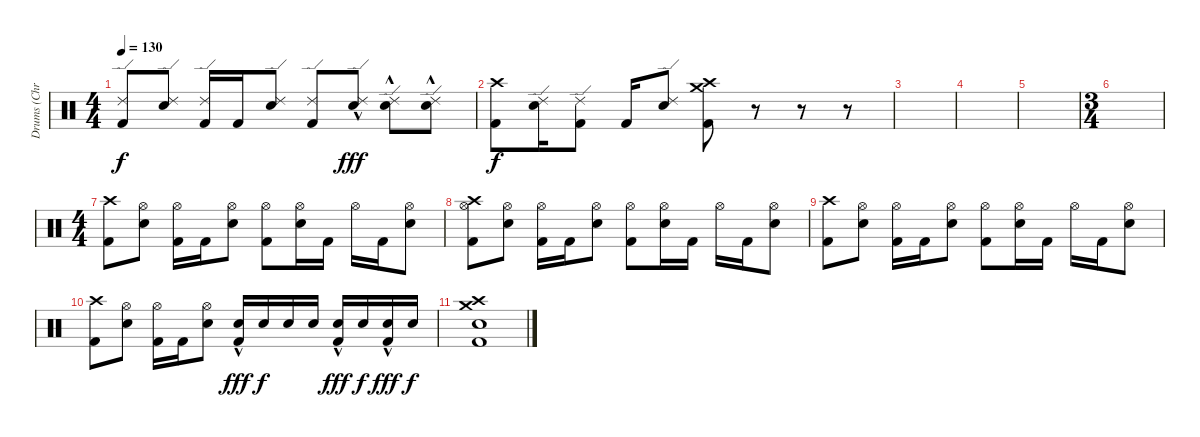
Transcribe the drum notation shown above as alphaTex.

\track ("Drums (Chris Greer)" "Drums (Chr") {instrument percussion}
\staff {score}
\articulation defaults
\ts (4 4)
\tempo 130
\clef neutral
\ks c
("Ride (edge) 2" "Kick (hit) 2").8{dy f} ("Ride (edge) 2" "Electric Snare (hit)").8 ("Ride (edge) 2" "Kick (hit) 2").16 "Kick (hit) 2".16 ("Ride (edge) 2" "Electric Snare (hit)").8 ("Ride (edge) 2" "Kick (hit) 2").8 ("Ride (edge) 2" "Electric Snare (hit)"{hac}).8{dy fff} ("Ride (edge) 2" "Electric Snare (hit)"{hac}).8 ("Ride (edge) 2" "Electric Snare (hit)"{hac}).8 |
("Crash high (hit)" "Kick (hit) 2").8{dy f} ("Ride (edge) 2" "Electric Snare (hit)").16 ("Ride (edge) 2" "Kick (hit) 2").8 "Kick (hit) 2".16 ("Ride (edge) 2" "Electric Snare (hit)").8 ("Crash high (hit)" "Crash medium (hit)" "Kick (hit) 2").8 r.8 r.8 r.8 |
|
|
|
\ts (3 4)
|
\ts (4 4)
("Crash high (hit)" "Kick (hit) 2").8 ("Hi-Hat (open)" "Electric Snare (hit)").8 ("Hi-Hat (open)" "Kick (hit) 2").16 "Kick (hit) 2".16 ("Hi-Hat (open)" "Electric Snare (hit)").8 ("Hi-Hat (open)" "Kick (hit) 2").8 ("Hi-Hat (open)" "Electric Snare (hit)").16 "Kick (hit) 2".16 "Hi-Hat (open)".16 "Kick (hit) 2".16 ("Hi-Hat (open)" "Electric Snare (hit)").8 |
("Crash high (hit)" "Hi-Hat (open)" "Kick (hit) 2").8 ("Hi-Hat (open)" "Electric Snare (hit)").8 ("Hi-Hat (open)" "Kick (hit) 2").16 "Kick (hit) 2".16 ("Hi-Hat (open)" "Electric Snare (hit)").8 ("Hi-Hat (open)" "Kick (hit) 2").8 ("Hi-Hat (open)" "Electric Snare (hit)").16 "Kick (hit) 2".16 "Hi-Hat (open)".16 "Kick (hit) 2".16 ("Hi-Hat (open)" "Electric Snare (hit)").8 |
("Crash high (hit)" "Kick (hit) 2").8 ("Hi-Hat (open)" "Electric Snare (hit)").8 ("Hi-Hat (open)" "Kick (hit) 2").16 "Kick (hit) 2".16 ("Hi-Hat (open)" "Electric Snare (hit)").8 ("Hi-Hat (open)" "Kick (hit) 2").8 ("Hi-Hat (open)" "Electric Snare (hit)").16 "Kick (hit) 2".16 "Hi-Hat (open)".16 "Kick (hit) 2".16 ("Hi-Hat (open)" "Electric Snare (hit)").8 |
("Crash high (hit)" "Kick (hit) 2").8 ("Hi-Hat (open)" "Electric Snare (hit)").8 ("Hi-Hat (open)" "Kick (hit) 2").16 "Kick (hit) 2".16 ("Hi-Hat (open)" "Electric Snare (hit)").8 ("Electric Snare (hit)" "Kick (hit) 2"{hac}).16{dy fff} "Electric Snare (hit)".16{dy f} "Electric Snare (hit)".16 "Electric Snare (hit)".16 ("Electric Snare (hit)" "Kick (hit) 2"{hac}).16{dy fff} "Electric Snare (hit)".16{dy f} ("Electric Snare (hit)" "Kick (hit) 2"{hac}).16{dy fff} "Electric Snare (hit)".16{dy f} |
("Crash high (hit)" "Crash medium (hit)" "Electric Snare (hit)" "Kick (hit) 2").1
